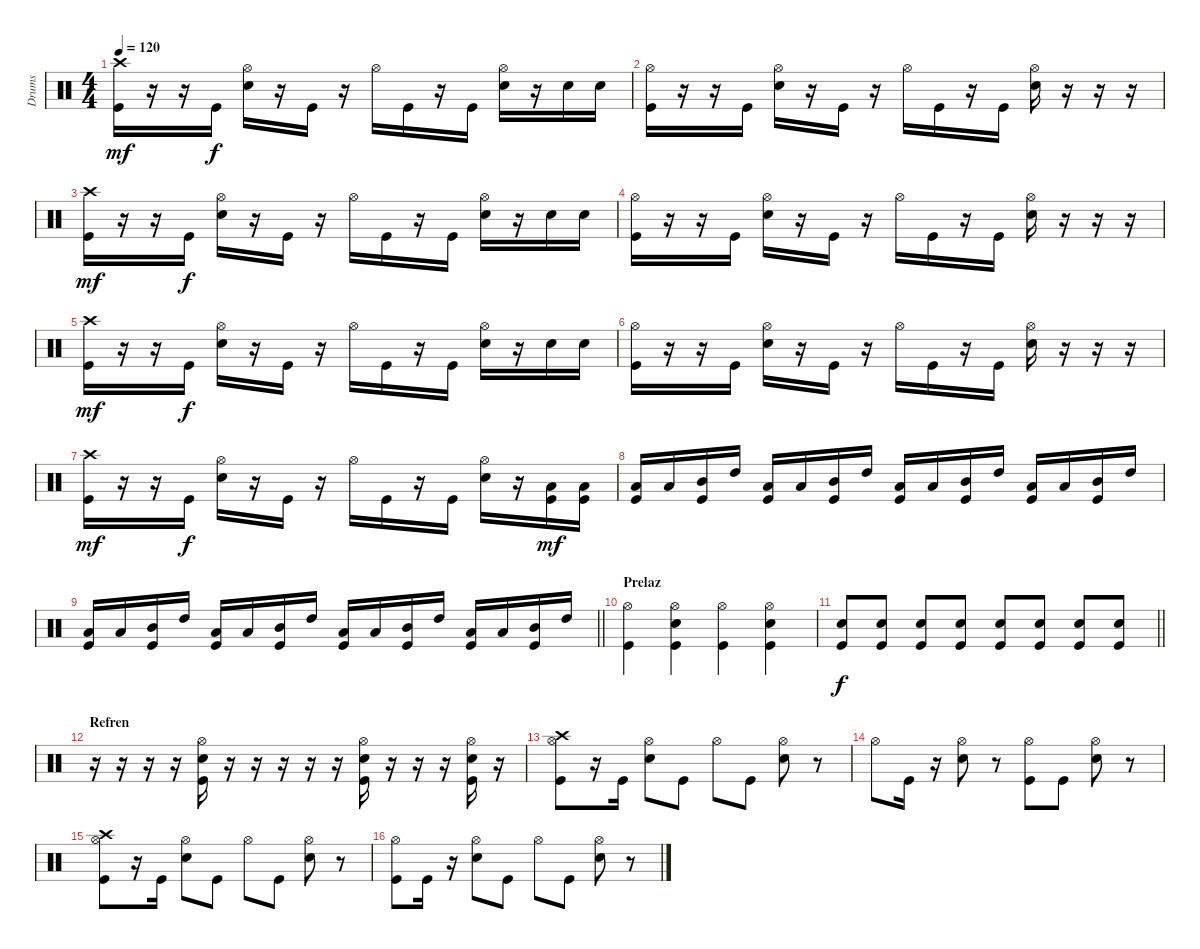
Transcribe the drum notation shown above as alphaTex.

\track ("Drums" "Drums") {instrument percussion}
\staff {score}
\articulation defaults
\ts (4 4)
\tempo 120
\clef neutral
\ks c
("Kick (hit)" "Crash high (hit)").16{dy mf} r.16 r.16 "Kick (hit)".16{dy f} ("Snare (hit) 2" "Hi-Hat (open)").16 r.16 "Kick (hit)".16 r.16 "Hi-Hat (open)".16 "Kick (hit)".16 r.16 "Kick (hit)".16 ("Snare (hit) 2" "Hi-Hat (open)").16 r.16 "Snare (hit) 2".16 "Snare (hit) 2".16 |
("Kick (hit)" "Hi-Hat (open)").16 r.16 r.16 "Kick (hit)".16 ("Snare (hit) 2" "Hi-Hat (open)").16 r.16 "Kick (hit)".16 r.16 "Hi-Hat (open)".16 "Kick (hit)".16 r.16 "Kick (hit)".16 ("Snare (hit) 2" "Hi-Hat (open)").16 r.16 r.16 r.16 |
("Kick (hit)" "Crash high (hit)").16{dy mf} r.16 r.16 "Kick (hit)".16{dy f} ("Snare (hit) 2" "Hi-Hat (open)").16 r.16 "Kick (hit)".16 r.16 "Hi-Hat (open)".16 "Kick (hit)".16 r.16 "Kick (hit)".16 ("Snare (hit) 2" "Hi-Hat (open)").16 r.16 "Snare (hit) 2".16 "Snare (hit) 2".16 |
("Kick (hit)" "Hi-Hat (open)").16 r.16 r.16 "Kick (hit)".16 ("Snare (hit) 2" "Hi-Hat (open)").16 r.16 "Kick (hit)".16 r.16 "Hi-Hat (open)".16 "Kick (hit)".16 r.16 "Kick (hit)".16 ("Snare (hit) 2" "Hi-Hat (open)").16 r.16 r.16 r.16 |
("Kick (hit)" "Crash high (hit)").16{dy mf} r.16 r.16 "Kick (hit)".16{dy f} ("Snare (hit) 2" "Hi-Hat (open)").16 r.16 "Kick (hit)".16 r.16 "Hi-Hat (open)".16 "Kick (hit)".16 r.16 "Kick (hit)".16 ("Snare (hit) 2" "Hi-Hat (open)").16 r.16 "Snare (hit) 2".16 "Snare (hit) 2".16 |
("Kick (hit)" "Hi-Hat (open)").16 r.16 r.16 "Kick (hit)".16 ("Snare (hit) 2" "Hi-Hat (open)").16 r.16 "Kick (hit)".16 r.16 "Hi-Hat (open)".16 "Kick (hit)".16 r.16 "Kick (hit)".16 ("Snare (hit) 2" "Hi-Hat (open)").16 r.16 r.16 r.16 |
("Kick (hit)" "Crash high (hit)").16{dy mf} r.16 r.16 "Kick (hit)".16{dy f} ("Snare (hit) 2" "Hi-Hat (open)").16 r.16 "Kick (hit)".16 r.16 "Hi-Hat (open)".16 "Kick (hit)".16 r.16 "Kick (hit)".16 ("Snare (hit) 2" "Hi-Hat (open)").16 r.16 ("Kick (hit)" "Low Tom (hit)").16{dy mf} ("Kick (hit)" "Low Tom (hit)").16 |
("Kick (hit)" "Low Tom (hit)").16 "Low Tom (hit)".16 ("Kick (hit)" "Mid Tom (hit)").16 "High Tom (hit)".16 ("Kick (hit)" "Low Tom (hit)").16 "Low Tom (hit)".16 ("Kick (hit)" "Mid Tom (hit)").16 "High Tom (hit)".16 ("Kick (hit)" "Low Tom (hit)").16 "Low Tom (hit)".16 ("Kick (hit)" "Mid Tom (hit)").16 "High Tom (hit)".16 ("Kick (hit)" "Low Tom (hit)").16 "Low Tom (hit)".16 ("Kick (hit)" "Mid Tom (hit)").16 "High Tom (hit)".16 |
\barLineRight lightlight
("Kick (hit)" "Low Tom (hit)").16 "Low Tom (hit)".16 ("Kick (hit)" "Mid Tom (hit)").16 "High Tom (hit)".16 ("Kick (hit)" "Low Tom (hit)").16 "Low Tom (hit)".16 ("Kick (hit)" "Mid Tom (hit)").16 "High Tom (hit)".16 ("Kick (hit)" "Low Tom (hit)").16 "Low Tom (hit)".16 ("Kick (hit)" "Mid Tom (hit)").16 "High Tom (hit)".16 ("Kick (hit)" "Low Tom (hit)").16 "Low Tom (hit)".16 ("Kick (hit)" "Mid Tom (hit)").16 "High Tom (hit)".16 |
\section ("" "Prelaz")
("Kick (hit)" "Hi-Hat (open)").4 ("Kick (hit)" "Snare (hit) 2" "Hi-Hat (open)").4 ("Kick (hit)" "Hi-Hat (open)").4 ("Kick (hit)" "Snare (hit) 2" "Hi-Hat (open)").4 |
\barLineRight lightlight
("Kick (hit)" "Snare (hit) 2").8{dy f} ("Kick (hit)" "Snare (hit) 2").8 ("Kick (hit)" "Snare (hit) 2").8 ("Kick (hit)" "Snare (hit) 2").8 ("Kick (hit)" "Snare (hit) 2").8 ("Kick (hit)" "Snare (hit) 2").8 ("Kick (hit)" "Snare (hit) 2").8 ("Kick (hit)" "Snare (hit) 2").8 |
\section ("" "Refren")
r.16 r.16 r.16 r.16 ("Kick (hit)" "Snare (hit) 2" "Hi-Hat (open)").16 r.16 r.16 r.16 r.16 r.16 ("Kick (hit)" "Snare (hit) 2" "Hi-Hat (open)").16 r.16 r.16 r.16 ("Kick (hit)" "Snare (hit) 2" "Hi-Hat (open)").16 r.16 |
("Kick (hit)" "Hi-Hat (open)" "Crash high (hit)").8 r.16 "Kick (hit)".16 ("Snare (hit) 2" "Hi-Hat (open)").8 "Kick (hit)".8 "Hi-Hat (open)".8 "Kick (hit)".8 ("Snare (hit) 2" "Hi-Hat (open)").8 r.8 |
"Hi-Hat (open)".8 "Kick (hit)".16 r.16 ("Snare (hit) 2" "Hi-Hat (open)").8 r.8 ("Kick (hit)" "Hi-Hat (open)").8 "Kick (hit)".8 ("Snare (hit) 2" "Hi-Hat (open)").8 r.8 |
("Kick (hit)" "Hi-Hat (open)" "Crash high (hit)").8 r.16 "Kick (hit)".16 ("Snare (hit) 2" "Hi-Hat (open)").8 "Kick (hit)".8 "Hi-Hat (open)".8 "Kick (hit)".8 ("Snare (hit) 2" "Hi-Hat (open)").8 r.8 |
("Kick (hit)" "Hi-Hat (open)").8 "Kick (hit)".16 r.16 ("Snare (hit) 2" "Hi-Hat (open)").8 "Kick (hit)".8 "Hi-Hat (open)".8 "Kick (hit)".8 ("Snare (hit) 2" "Hi-Hat (open)").8 r.8
